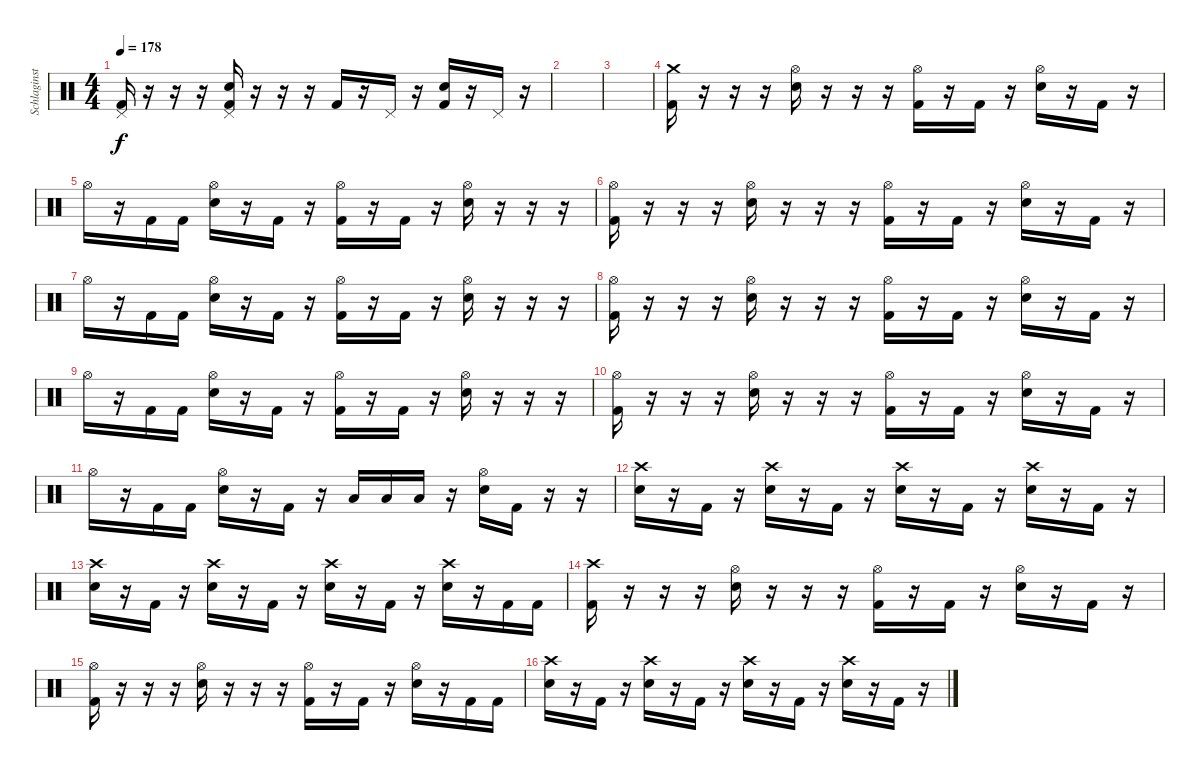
\track ("Schlaginstrumente - Auswahl" "Schlaginst") {instrument percussion}
\staff {score}
\articulation defaults
\ts (4 4)
\tempo 178
\clef neutral
\ks c
("Pedal Hi-Hat (hit)" "Kick (hit) 2").16{dy f} r.16 r.16 r.16 ("Pedal Hi-Hat (hit)" "Snare (hit) 2" "Kick (hit) 2").16 r.16 r.16 r.16 "Kick (hit) 2".16 r.16 "Pedal Hi-Hat (hit)".16 r.16 ("Snare (hit) 2" "Kick (hit) 2").16 r.16 "Pedal Hi-Hat (hit)".16 r.16 |
|
|
("Crash medium (hit)" "Kick (hit) 2").16 r.16 r.16 r.16 ("Hi-Hat (open)" "Snare (hit) 2").16 r.16 r.16 r.16 ("Hi-Hat (open)" "Kick (hit) 2").16 r.16 "Kick (hit) 2".16 r.16 ("Hi-Hat (open)" "Snare (hit) 2").16 r.16 "Kick (hit) 2".16 r.16 |
"Hi-Hat (open)".16 r.16 "Kick (hit) 2".16 "Kick (hit) 2".16 ("Hi-Hat (open)" "Snare (hit) 2").16 r.16 "Kick (hit) 2".16 r.16 ("Hi-Hat (open)" "Kick (hit) 2").16 r.16 "Kick (hit) 2".16 r.16 ("Hi-Hat (open)" "Snare (hit) 2").16 r.16 r.16 r.16 |
("Hi-Hat (open)" "Kick (hit) 2").16 r.16 r.16 r.16 ("Hi-Hat (open)" "Snare (hit) 2").16 r.16 r.16 r.16 ("Hi-Hat (open)" "Kick (hit) 2").16 r.16 "Kick (hit) 2".16 r.16 ("Hi-Hat (open)" "Snare (hit) 2").16 r.16 "Kick (hit) 2".16 r.16 |
"Hi-Hat (open)".16 r.16 "Kick (hit) 2".16 "Kick (hit) 2".16 ("Hi-Hat (open)" "Snare (hit) 2").16 r.16 "Kick (hit) 2".16 r.16 ("Hi-Hat (open)" "Kick (hit) 2").16 r.16 "Kick (hit) 2".16 r.16 ("Hi-Hat (open)" "Snare (hit) 2").16 r.16 r.16 r.16 |
("Hi-Hat (open)" "Kick (hit) 2").16 r.16 r.16 r.16 ("Hi-Hat (open)" "Snare (hit) 2").16 r.16 r.16 r.16 ("Hi-Hat (open)" "Kick (hit) 2").16 r.16 "Kick (hit) 2".16 r.16 ("Hi-Hat (open)" "Snare (hit) 2").16 r.16 "Kick (hit) 2".16 r.16 |
"Hi-Hat (open)".16 r.16 "Kick (hit) 2".16 "Kick (hit) 2".16 ("Hi-Hat (open)" "Snare (hit) 2").16 r.16 "Kick (hit) 2".16 r.16 ("Hi-Hat (open)" "Kick (hit) 2").16 r.16 "Kick (hit) 2".16 r.16 ("Hi-Hat (open)" "Snare (hit) 2").16 r.16 r.16 r.16 |
("Hi-Hat (open)" "Kick (hit) 2").16 r.16 r.16 r.16 ("Hi-Hat (open)" "Snare (hit) 2").16 r.16 r.16 r.16 ("Hi-Hat (open)" "Kick (hit) 2").16 r.16 "Kick (hit) 2".16 r.16 ("Hi-Hat (open)" "Snare (hit) 2").16 r.16 "Kick (hit) 2".16 r.16 |
"Hi-Hat (open)".16 r.16 "Kick (hit) 2".16 "Kick (hit) 2".16 ("Hi-Hat (open)" "Snare (hit) 2").16 r.16 "Kick (hit) 2".16 r.16 "Low Tom (hit)".16 "Low Tom (hit)".16 "Low Tom (hit)".16 r.16 ("Hi-Hat (open)" "Snare (hit) 2").16 "Kick (hit) 2".16 r.16 r.16 |
("Crash high (hit)" "Snare (hit) 2").16 r.16 "Kick (hit) 2".16 r.16 ("Crash high (hit)" "Snare (hit) 2").16 r.16 "Kick (hit) 2".16 r.16 ("Crash high (hit)" "Snare (hit) 2").16 r.16 "Kick (hit) 2".16 r.16 ("Crash high (hit)" "Snare (hit) 2").16 r.16 "Kick (hit) 2".16 r.16 |
("Crash high (hit)" "Snare (hit) 2").16 r.16 "Kick (hit) 2".16 r.16 ("Crash high (hit)" "Snare (hit) 2").16 r.16 "Kick (hit) 2".16 r.16 ("Crash high (hit)" "Snare (hit) 2").16 r.16 "Kick (hit) 2".16 r.16 ("Crash high (hit)" "Snare (hit) 2").16 r.16 "Kick (hit) 2".16 "Kick (hit) 2".16 |
("Crash high (hit)" "Kick (hit) 2").16 r.16 r.16 r.16 ("Hi-Hat (open)" "Snare (hit) 2").16 r.16 r.16 r.16 ("Hi-Hat (open)" "Kick (hit) 2").16 r.16 "Kick (hit) 2".16 r.16 ("Hi-Hat (open)" "Snare (hit) 2").16 r.16 "Kick (hit) 2".16 r.16 |
("Hi-Hat (open)" "Kick (hit) 2").16 r.16 r.16 r.16 ("Hi-Hat (open)" "Snare (hit) 2").16 r.16 r.16 r.16 ("Hi-Hat (open)" "Kick (hit) 2").16 r.16 "Kick (hit) 2".16 r.16 ("Hi-Hat (open)" "Snare (hit) 2").16 r.16 "Kick (hit) 2".16 "Kick (hit) 2".16 |
("Crash high (hit)" "Snare (hit) 2").16 r.16 "Kick (hit) 2".16 r.16 ("Crash high (hit)" "Snare (hit) 2").16 r.16 "Kick (hit) 2".16 r.16 ("Crash high (hit)" "Snare (hit) 2").16 r.16 "Kick (hit) 2".16 r.16 ("Crash high (hit)" "Snare (hit) 2").16 r.16 "Kick (hit) 2".16 r.16
